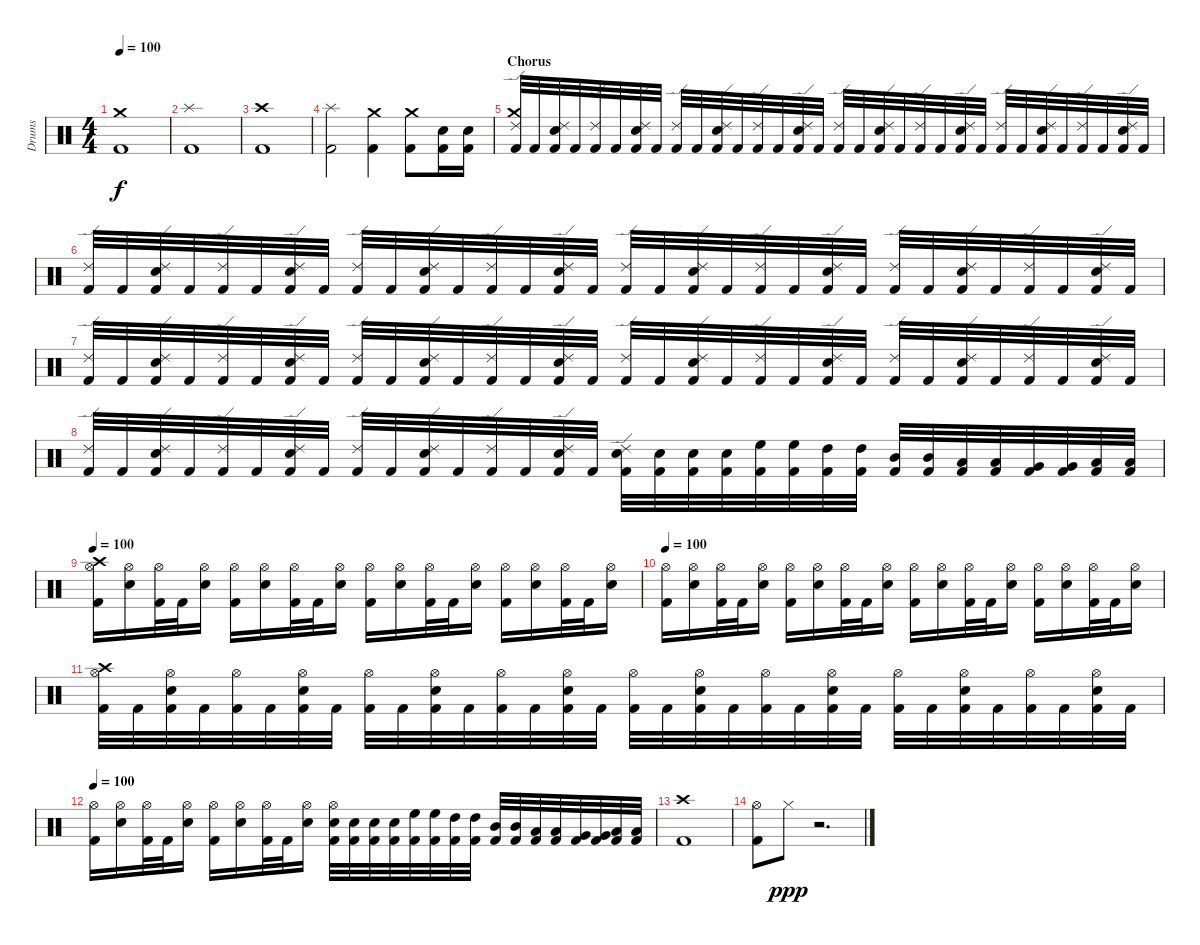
\track ("Drums" "Drums") {instrument percussion}
\staff {score}
\articulation defaults
\ts (4 4)
\section ("" "")
\tempo 100
\clef neutral
\ks c
("Kick (hit) 2" "Crash medium (hit)").1{dy f} |
("Kick (hit) 2" "Splash (hit)").1 |
("Kick (hit) 2" "Crash high (hit)").1 |
("Kick (hit) 2" "Splash (hit)").2 ("Kick (hit) 2" "Crash medium (hit)").4 ("Kick (hit) 2" "Crash medium (hit)").8 ("Kick (hit) 2" "Snare (hit) 2").16 ("Kick (hit) 2" "Snare (hit) 2").16 |
\section ("" "Chorus")
("Kick (hit) 2" "Ride (edge) 2" "Crash medium (hit)").32 "Kick (hit) 2".32 ("Kick (hit) 2" "Snare (hit) 2" "Ride (edge) 2").32 "Kick (hit) 2".32 ("Kick (hit) 2" "Ride (edge) 2").32 "Kick (hit) 2".32 ("Kick (hit) 2" "Snare (hit) 2" "Ride (edge) 2").32 "Kick (hit) 2".32 ("Kick (hit) 2" "Ride (edge) 2").32 "Kick (hit) 2".32 ("Kick (hit) 2" "Snare (hit) 2" "Ride (edge) 2").32 "Kick (hit) 2".32 ("Kick (hit) 2" "Ride (edge) 2").32 "Kick (hit) 2".32 ("Kick (hit) 2" "Snare (hit) 2" "Ride (edge) 2").32 "Kick (hit) 2".32 ("Kick (hit) 2" "Ride (edge) 2").32 "Kick (hit) 2".32 ("Kick (hit) 2" "Snare (hit) 2" "Ride (edge) 2").32 "Kick (hit) 2".32 ("Kick (hit) 2" "Ride (edge) 2").32 "Kick (hit) 2".32 ("Kick (hit) 2" "Snare (hit) 2" "Ride (edge) 2").32 "Kick (hit) 2".32 ("Kick (hit) 2" "Ride (edge) 2").32 "Kick (hit) 2".32 ("Kick (hit) 2" "Snare (hit) 2" "Ride (edge) 2").32 "Kick (hit) 2".32 ("Kick (hit) 2" "Ride (edge) 2").32 "Kick (hit) 2".32 ("Kick (hit) 2" "Snare (hit) 2" "Ride (edge) 2").32 "Kick (hit) 2".32 |
("Kick (hit) 2" "Ride (edge) 2").32 "Kick (hit) 2".32 ("Kick (hit) 2" "Snare (hit) 2" "Ride (edge) 2").32 "Kick (hit) 2".32 ("Kick (hit) 2" "Ride (edge) 2").32 "Kick (hit) 2".32 ("Kick (hit) 2" "Snare (hit) 2" "Ride (edge) 2").32 "Kick (hit) 2".32 ("Kick (hit) 2" "Ride (edge) 2").32 "Kick (hit) 2".32 ("Kick (hit) 2" "Snare (hit) 2" "Ride (edge) 2").32 "Kick (hit) 2".32 ("Kick (hit) 2" "Ride (edge) 2").32 "Kick (hit) 2".32 ("Kick (hit) 2" "Snare (hit) 2" "Ride (edge) 2").32 "Kick (hit) 2".32 ("Kick (hit) 2" "Ride (edge) 2").32 "Kick (hit) 2".32 ("Kick (hit) 2" "Snare (hit) 2" "Ride (edge) 2").32 "Kick (hit) 2".32 ("Kick (hit) 2" "Ride (edge) 2").32 "Kick (hit) 2".32 ("Kick (hit) 2" "Snare (hit) 2" "Ride (edge) 2").32 "Kick (hit) 2".32 ("Kick (hit) 2" "Ride (edge) 2").32 "Kick (hit) 2".32 ("Kick (hit) 2" "Snare (hit) 2" "Ride (edge) 2").32 "Kick (hit) 2".32 ("Kick (hit) 2" "Ride (edge) 2").32 "Kick (hit) 2".32 ("Kick (hit) 2" "Snare (hit) 2" "Ride (edge) 2").32 "Kick (hit) 2".32 |
("Kick (hit) 2" "Ride (edge) 2").32 "Kick (hit) 2".32 ("Kick (hit) 2" "Snare (hit) 2" "Ride (edge) 2").32 "Kick (hit) 2".32 ("Kick (hit) 2" "Ride (edge) 2").32 "Kick (hit) 2".32 ("Kick (hit) 2" "Snare (hit) 2" "Ride (edge) 2").32 "Kick (hit) 2".32 ("Kick (hit) 2" "Ride (edge) 2").32 "Kick (hit) 2".32 ("Kick (hit) 2" "Snare (hit) 2" "Ride (edge) 2").32 "Kick (hit) 2".32 ("Kick (hit) 2" "Ride (edge) 2").32 "Kick (hit) 2".32 ("Kick (hit) 2" "Snare (hit) 2" "Ride (edge) 2").32 "Kick (hit) 2".32 ("Kick (hit) 2" "Ride (edge) 2").32 "Kick (hit) 2".32 ("Kick (hit) 2" "Snare (hit) 2" "Ride (edge) 2").32 "Kick (hit) 2".32 ("Kick (hit) 2" "Ride (edge) 2").32 "Kick (hit) 2".32 ("Kick (hit) 2" "Snare (hit) 2" "Ride (edge) 2").32 "Kick (hit) 2".32 ("Kick (hit) 2" "Ride (edge) 2").32 "Kick (hit) 2".32 ("Kick (hit) 2" "Snare (hit) 2" "Ride (edge) 2").32 "Kick (hit) 2".32 ("Kick (hit) 2" "Ride (edge) 2").32 "Kick (hit) 2".32 ("Kick (hit) 2" "Snare (hit) 2" "Ride (edge) 2").32 "Kick (hit) 2".32 |
("Kick (hit) 2" "Ride (edge) 2").32 "Kick (hit) 2".32 ("Kick (hit) 2" "Snare (hit) 2" "Ride (edge) 2").32 "Kick (hit) 2".32 ("Kick (hit) 2" "Ride (edge) 2").32 "Kick (hit) 2".32 ("Kick (hit) 2" "Snare (hit) 2" "Ride (edge) 2").32 "Kick (hit) 2".32 ("Kick (hit) 2" "Ride (edge) 2").32 "Kick (hit) 2".32 ("Kick (hit) 2" "Snare (hit) 2" "Ride (edge) 2").32 "Kick (hit) 2".32 ("Kick (hit) 2" "Ride (edge) 2").32 "Kick (hit) 2".32 ("Kick (hit) 2" "Snare (hit) 2" "Ride (edge) 2").32 "Kick (hit) 2".32 ("Kick (hit) 2" "Snare (hit) 2" "Ride (edge) 2").32 ("Kick (hit) 2" "Snare (hit) 2").32 ("Kick (hit) 2" "Snare (hit) 2").32 ("Kick (hit) 2" "Snare (hit) 2").32 ("Kick (hit) 2" "High Floor Tom (hit)").32 ("Kick (hit) 2" "High Floor Tom (hit)").32 ("Kick (hit) 2" "High Tom (hit)").32 ("Kick (hit) 2" "High Tom (hit)").32 ("Kick (hit) 2" "Mid Tom (hit)").32 ("Kick (hit) 2" "Mid Tom (hit)").32 ("Kick (hit) 2" "Low Tom (hit)").32 ("Kick (hit) 2" "Low Tom (hit)").32 ("Kick (hit) 2" "Very Low Tom (hit)").32 ("Kick (hit) 2" "Very Low Tom (hit)").32 ("Kick (hit) 2" "Low Floor Tom (hit)").32 ("Kick (hit) 2" "Low Floor Tom (hit)").32 |
\section ("" "")
\tempo 100
("Kick (hit) 2" "Hi-Hat (open)" "Crash high (hit)").16 ("Snare (hit) 2" "Hi-Hat (open)").16 ("Kick (hit) 2" "Hi-Hat (open)").32 "Kick (hit) 2".32 ("Snare (hit) 2" "Hi-Hat (open)").16 ("Kick (hit) 2" "Hi-Hat (open)").16 ("Snare (hit) 2" "Hi-Hat (open)").16 ("Kick (hit) 2" "Hi-Hat (open)").32 "Kick (hit) 2".32 ("Snare (hit) 2" "Hi-Hat (open)").16 ("Kick (hit) 2" "Hi-Hat (open)").16 ("Snare (hit) 2" "Hi-Hat (open)").16 ("Kick (hit) 2" "Hi-Hat (open)").32 "Kick (hit) 2".32 ("Snare (hit) 2" "Hi-Hat (open)").16 ("Kick (hit) 2" "Hi-Hat (open)").16 ("Snare (hit) 2" "Hi-Hat (open)").16 ("Kick (hit) 2" "Hi-Hat (open)").32 "Kick (hit) 2".32 ("Snare (hit) 2" "Hi-Hat (open)").16 |
\tempo 100
("Kick (hit) 2" "Hi-Hat (open)").16 ("Snare (hit) 2" "Hi-Hat (open)").16 ("Kick (hit) 2" "Hi-Hat (open)").32 "Kick (hit) 2".32 ("Snare (hit) 2" "Hi-Hat (open)").16 ("Kick (hit) 2" "Hi-Hat (open)").16 ("Snare (hit) 2" "Hi-Hat (open)").16 ("Kick (hit) 2" "Hi-Hat (open)").32 "Kick (hit) 2".32 ("Snare (hit) 2" "Hi-Hat (open)").16 ("Kick (hit) 2" "Hi-Hat (open)").16 ("Snare (hit) 2" "Hi-Hat (open)").16 ("Kick (hit) 2" "Hi-Hat (open)").32 "Kick (hit) 2".32 ("Snare (hit) 2" "Hi-Hat (open)").16 ("Kick (hit) 2" "Hi-Hat (open)").16 ("Snare (hit) 2" "Hi-Hat (open)").16 ("Kick (hit) 2" "Hi-Hat (open)").32 "Kick (hit) 2".32 ("Snare (hit) 2" "Hi-Hat (open)").16 |
("Kick (hit) 2" "Hi-Hat (open)" "Crash high (hit)").32 "Kick (hit) 2".32 ("Kick (hit) 2" "Snare (hit) 2" "Hi-Hat (open)").32 "Kick (hit) 2".32 ("Kick (hit) 2" "Hi-Hat (open)").32 "Kick (hit) 2".32 ("Kick (hit) 2" "Snare (hit) 2" "Hi-Hat (open)").32 "Kick (hit) 2".32 ("Kick (hit) 2" "Hi-Hat (open)").32 "Kick (hit) 2".32 ("Kick (hit) 2" "Snare (hit) 2" "Hi-Hat (open)").32 "Kick (hit) 2".32 ("Kick (hit) 2" "Hi-Hat (open)").32 "Kick (hit) 2".32 ("Kick (hit) 2" "Snare (hit) 2" "Hi-Hat (open)").32 "Kick (hit) 2".32 ("Kick (hit) 2" "Hi-Hat (open)").32 "Kick (hit) 2".32 ("Kick (hit) 2" "Snare (hit) 2" "Hi-Hat (open)").32 "Kick (hit) 2".32 ("Kick (hit) 2" "Hi-Hat (open)").32 "Kick (hit) 2".32 ("Kick (hit) 2" "Snare (hit) 2" "Hi-Hat (open)").32 "Kick (hit) 2".32 ("Kick (hit) 2" "Hi-Hat (open)").32 "Kick (hit) 2".32 ("Kick (hit) 2" "Snare (hit) 2" "Hi-Hat (open)").32 "Kick (hit) 2".32 ("Kick (hit) 2" "Hi-Hat (open)").32 "Kick (hit) 2".32 ("Kick (hit) 2" "Snare (hit) 2" "Hi-Hat (open)").32 "Kick (hit) 2".32 |
\tempo 100
("Kick (hit) 2" "Hi-Hat (open)").16 ("Snare (hit) 2" "Hi-Hat (open)").16 ("Kick (hit) 2" "Hi-Hat (open)").32 "Kick (hit) 2".32 ("Snare (hit) 2" "Hi-Hat (open)").16 ("Kick (hit) 2" "Hi-Hat (open)").16 ("Snare (hit) 2" "Hi-Hat (open)").16 ("Kick (hit) 2" "Hi-Hat (open)").32 "Kick (hit) 2".32 ("Snare (hit) 2" "Hi-Hat (open)").16 ("Kick (hit) 2" "Snare (hit) 2" "Hi-Hat (open)").32 ("Kick (hit) 2" "Snare (hit) 2").32 ("Kick (hit) 2" "Snare (hit) 2").32 ("Kick (hit) 2" "Snare (hit) 2").32 ("Kick (hit) 2" "High Floor Tom (hit)").32 ("Kick (hit) 2" "High Floor Tom (hit)").32 ("Kick (hit) 2" "High Tom (hit)").32 ("Kick (hit) 2" "High Tom (hit)").32 ("Kick (hit) 2" "Mid Tom (hit)").32 ("Kick (hit) 2" "Mid Tom (hit)").32 ("Kick (hit) 2" "Low Tom (hit)").32 ("Kick (hit) 2" "Low Tom (hit)").32 ("Kick (hit) 2" "Very Low Tom (hit)").32 ("Kick (hit) 2" "Very Low Tom (hit)").32 ("Kick (hit) 2" "Low Floor Tom (hit)").32 ("Kick (hit) 2" "Low Floor Tom (hit)").32 |
("Kick (hit) 2" "Crash high (hit)").1 |
("Kick (hit) 2" "Hi-Hat (open)").8 "Hi-Hat (closed)".8{dy ppp} r.2{d}
